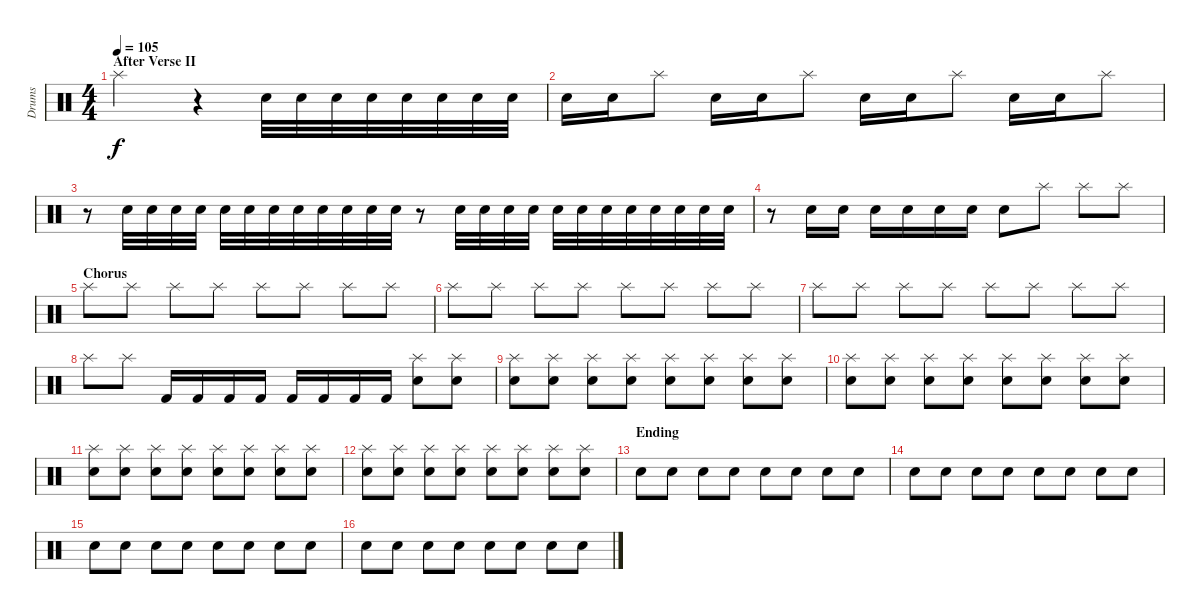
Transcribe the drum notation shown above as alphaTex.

\track ("Drums" "Drums") {instrument percussion}
\staff {score}
\articulation defaults
\ts (4 4)
\section ("" "After Verse II")
\tempo 105
\clef neutral
\ks c "Splash (hit)".2{dy f}
r.4 "Electric Snare (hit)".32 "Electric Snare (hit)".32 "Electric Snare (hit)".32 "Electric Snare (hit)".32 "Electric Snare (hit)".32 "Electric Snare (hit)".32 "Electric Snare (hit)".32 "Electric Snare (hit)".32 |
"Electric Snare (hit)".16 "Electric Snare (hit)".16 "Splash (hit)".8 "Electric Snare (hit)".16 "Electric Snare (hit)".16 "Splash (hit)".8 "Electric Snare (hit)".16 "Electric Snare (hit)".16 "Splash (hit)".8 "Electric Snare (hit)".16 "Electric Snare (hit)".16 "Splash (hit)".8 |
r.8 "Electric Snare (hit)".32 "Electric Snare (hit)".32 "Electric Snare (hit)".32 "Electric Snare (hit)".32 "Electric Snare (hit)".32 "Electric Snare (hit)".32 "Electric Snare (hit)".32 "Electric Snare (hit)".32 "Electric Snare (hit)".32 "Electric Snare (hit)".32 "Electric Snare (hit)".32 "Electric Snare (hit)".32 r.8 "Electric Snare (hit)".32 "Electric Snare (hit)".32 "Electric Snare (hit)".32 "Electric Snare (hit)".32 "Electric Snare (hit)".32 "Electric Snare (hit)".32 "Electric Snare (hit)".32 "Electric Snare (hit)".32 "Electric Snare (hit)".32 "Electric Snare (hit)".32 "Electric Snare (hit)".32 "Electric Snare (hit)".32 |
r.8 "Electric Snare (hit)".16 "Electric Snare (hit)".16 "Electric Snare (hit)".16 "Electric Snare (hit)".16 "Electric Snare (hit)".16 "Electric Snare (hit)".16 "Electric Snare (hit)".8 "Splash (hit)".8 "Splash (hit)".8 "Splash (hit)".8 |
\section ("" "Chorus")
"Splash (hit)".8 "Splash (hit)".8 "Splash (hit)".8 "Splash (hit)".8 "Splash (hit)".8 "Splash (hit)".8 "Splash (hit)".8 "Splash (hit)".8 |
"Splash (hit)".8 "Splash (hit)".8 "Splash (hit)".8 "Splash (hit)".8 "Splash (hit)".8 "Splash (hit)".8 "Splash (hit)".8 "Splash (hit)".8 |
"Splash (hit)".8 "Splash (hit)".8 "Splash (hit)".8 "Splash (hit)".8 "Splash (hit)".8 "Splash (hit)".8 "Splash (hit)".8 "Splash (hit)".8 |
"Splash (hit)".8 "Splash (hit)".8 "Kick (hit) 2".16 "Kick (hit) 2".16 "Kick (hit) 2".16 "Kick (hit) 2".16 "Kick (hit) 2".16 "Kick (hit) 2".16 "Kick (hit) 2".16 "Kick (hit) 2".16 ("Electric Snare (hit)" "Splash (hit)").8 ("Electric Snare (hit)" "Splash (hit)").8 |
("Electric Snare (hit)" "Splash (hit)").8 ("Electric Snare (hit)" "Splash (hit)").8 ("Electric Snare (hit)" "Splash (hit)").8 ("Electric Snare (hit)" "Splash (hit)").8 ("Electric Snare (hit)" "Splash (hit)").8 ("Electric Snare (hit)" "Splash (hit)").8 ("Electric Snare (hit)" "Splash (hit)").8 ("Electric Snare (hit)" "Splash (hit)").8 |
("Electric Snare (hit)" "Splash (hit)").8 ("Electric Snare (hit)" "Splash (hit)").8 ("Electric Snare (hit)" "Splash (hit)").8 ("Electric Snare (hit)" "Splash (hit)").8 ("Electric Snare (hit)" "Splash (hit)").8 ("Electric Snare (hit)" "Splash (hit)").8 ("Electric Snare (hit)" "Splash (hit)").8 ("Electric Snare (hit)" "Splash (hit)").8 |
("Electric Snare (hit)" "Splash (hit)").8 ("Electric Snare (hit)" "Splash (hit)").8 ("Electric Snare (hit)" "Splash (hit)").8 ("Electric Snare (hit)" "Splash (hit)").8 ("Electric Snare (hit)" "Splash (hit)").8 ("Electric Snare (hit)" "Splash (hit)").8 ("Electric Snare (hit)" "Splash (hit)").8 ("Electric Snare (hit)" "Splash (hit)").8 |
("Electric Snare (hit)" "Splash (hit)").8 ("Electric Snare (hit)" "Splash (hit)").8 ("Electric Snare (hit)" "Splash (hit)").8 ("Electric Snare (hit)" "Splash (hit)").8 ("Electric Snare (hit)" "Splash (hit)").8 ("Electric Snare (hit)" "Splash (hit)").8 ("Electric Snare (hit)" "Splash (hit)").8 ("Electric Snare (hit)" "Splash (hit)").8 |
\section ("" "Ending")
"Electric Snare (hit)".8 "Electric Snare (hit)".8 "Electric Snare (hit)".8 "Electric Snare (hit)".8 "Electric Snare (hit)".8 "Electric Snare (hit)".8 "Electric Snare (hit)".8 "Electric Snare (hit)".8 |
"Electric Snare (hit)".8 "Electric Snare (hit)".8 "Electric Snare (hit)".8 "Electric Snare (hit)".8 "Electric Snare (hit)".8 "Electric Snare (hit)".8 "Electric Snare (hit)".8 "Electric Snare (hit)".8 |
"Electric Snare (hit)".8 "Electric Snare (hit)".8 "Electric Snare (hit)".8 "Electric Snare (hit)".8 "Electric Snare (hit)".8 "Electric Snare (hit)".8 "Electric Snare (hit)".8 "Electric Snare (hit)".8 |
"Electric Snare (hit)".8 "Electric Snare (hit)".8 "Electric Snare (hit)".8 "Electric Snare (hit)".8 "Electric Snare (hit)".8 "Electric Snare (hit)".8 "Electric Snare (hit)".8 "Electric Snare (hit)".8
